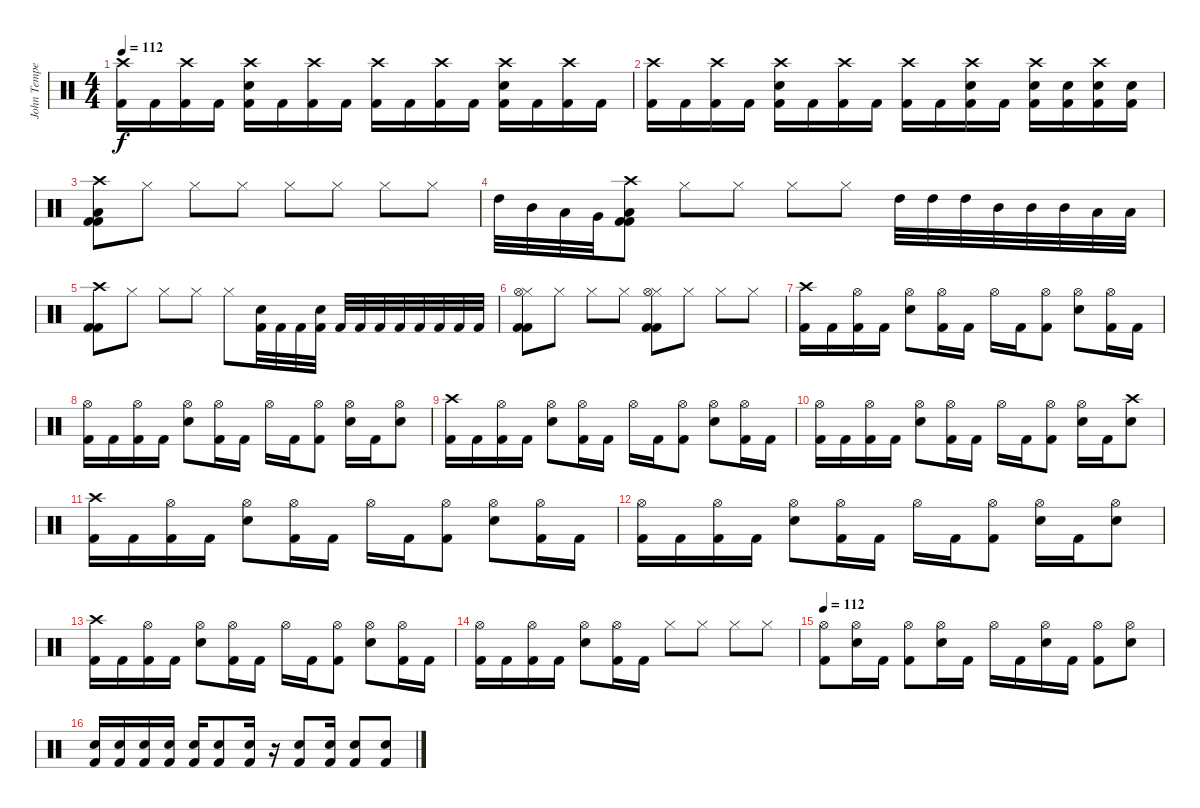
\track ("John Tempesta" "John Tempe") {instrument percussion}
\staff {score}
\articulation defaults
\ts (4 4)
\tempo 112
\clef neutral
\ks c
("Crash high (hit)" "Kick (hit) 2").16{dy f} "Kick (hit) 2".16 ("Crash high (hit)" "Kick (hit) 2").16 "Kick (hit) 2".16 ("Crash high (hit)" "Electric Snare (hit)" "Kick (hit) 2").16 "Kick (hit) 2".16 ("Crash high (hit)" "Kick (hit) 2").16 "Kick (hit) 2".16 ("Crash high (hit)" "Kick (hit) 2").16 "Kick (hit) 2".16 ("Crash high (hit)" "Kick (hit) 2").16 "Kick (hit) 2".16 ("Crash high (hit)" "Electric Snare (hit)" "Kick (hit) 2").16 "Kick (hit) 2".16 ("Crash high (hit)" "Kick (hit) 2").16 "Kick (hit) 2".16 |
("Crash high (hit)" "Kick (hit) 2").16 "Kick (hit) 2".16 ("Crash high (hit)" "Kick (hit) 2").16 "Kick (hit) 2".16 ("Crash high (hit)" "Electric Snare (hit)" "Kick (hit) 2").16 "Kick (hit) 2".16 ("Crash high (hit)" "Kick (hit) 2").16 "Kick (hit) 2".16 ("Crash high (hit)" "Kick (hit) 2").16 "Kick (hit) 2".16 ("Crash high (hit)" "Electric Snare (hit)" "Kick (hit) 2").16 "Kick (hit) 2".16 ("Crash high (hit)" "Electric Snare (hit)" "Kick (hit) 2").16 ("Electric Snare (hit)" "Kick (hit) 2").16 ("Crash high (hit)" "Electric Snare (hit)" "Kick (hit) 2").16 ("Electric Snare (hit)" "Kick (hit) 2").16 |
("Crash high (hit)" "Low Floor Tom (hit)" "Kick (hit) 2" "Kick (hit) 2").8 "Hi-Hat (closed)".8 "Hi-Hat (closed)".8 "Hi-Hat (closed)".8 "Hi-Hat (closed)".8 "Hi-Hat (closed)".8 "Hi-Hat (closed)".8 "Hi-Hat (closed)".8 |
"High Tom (hit)".32 "Mid Tom (hit)".32 "Low Tom (hit)".32 "Very Low Tom (hit)".32 ("Crash high (hit)" "Low Floor Tom (hit)" "Kick (hit) 2" "Kick (hit) 2").8 "Hi-Hat (closed)".8 "Hi-Hat (closed)".8 "Hi-Hat (closed)".8 "Hi-Hat (closed)".8 "High Tom (hit)".32 "High Tom (hit)".32 "High Tom (hit)".32 "Mid Tom (hit)".32 "Mid Tom (hit)".32 "Mid Tom (hit)".32 "Low Tom (hit)".32 "Low Tom (hit)".32 |
("Crash high (hit)" "Kick (hit) 2" "Kick (hit) 2").8 "Hi-Hat (closed)".8 "Hi-Hat (closed)".8 "Hi-Hat (closed)".8 "Hi-Hat (closed)".8 ("Electric Snare (hit)" "Kick (hit) 2").32 "Kick (hit) 2".32 "Kick (hit) 2".32 ("Electric Snare (hit)" "Kick (hit) 2").32 "Kick (hit) 2".32 "Kick (hit) 2".32 "Kick (hit) 2".32 "Kick (hit) 2".32 "Kick (hit) 2".32 "Kick (hit) 2".32 "Kick (hit) 2".32 "Kick (hit) 2".32 |
("Hi-Hat (closed)" "Hi-Hat (open)" "Kick (hit) 2" "Kick (hit) 2").8 "Hi-Hat (closed)".8 "Hi-Hat (closed)".8 "Hi-Hat (closed)".8 ("Hi-Hat (closed)" "Hi-Hat (open)" "Kick (hit) 2" "Kick (hit) 2").8 "Hi-Hat (closed)".8 "Hi-Hat (closed)".8 "Hi-Hat (closed)".8 |
("Crash high (hit)" "Kick (hit) 2").16 "Kick (hit) 2".16 ("Hi-Hat (open)" "Kick (hit) 2").16 "Kick (hit) 2".16 ("Hi-Hat (open)" "Electric Snare (hit)").8 ("Hi-Hat (open)" "Kick (hit) 2").16 "Kick (hit) 2".16 "Hi-Hat (open)".16 "Kick (hit) 2".16 ("Hi-Hat (open)" "Kick (hit) 2").8 ("Hi-Hat (open)" "Electric Snare (hit)").8 ("Hi-Hat (open)" "Kick (hit) 2").16 "Kick (hit) 2".16 |
("Hi-Hat (open)" "Kick (hit) 2").16 "Kick (hit) 2".16 ("Hi-Hat (open)" "Kick (hit) 2").16 "Kick (hit) 2".16 ("Hi-Hat (open)" "Electric Snare (hit)").8 ("Hi-Hat (open)" "Kick (hit) 2").16 "Kick (hit) 2".16 "Hi-Hat (open)".16 "Kick (hit) 2".16 ("Hi-Hat (open)" "Kick (hit) 2").8 ("Hi-Hat (open)" "Electric Snare (hit)").16 "Kick (hit) 2".16 ("Hi-Hat (open)" "Electric Snare (hit)").8 |
("Crash high (hit)" "Kick (hit) 2").16 "Kick (hit) 2".16 ("Hi-Hat (open)" "Kick (hit) 2").16 "Kick (hit) 2".16 ("Hi-Hat (open)" "Electric Snare (hit)").8 ("Hi-Hat (open)" "Kick (hit) 2").16 "Kick (hit) 2".16 "Hi-Hat (open)".16 "Kick (hit) 2".16 ("Hi-Hat (open)" "Kick (hit) 2").8 ("Hi-Hat (open)" "Electric Snare (hit)").8 ("Hi-Hat (open)" "Kick (hit) 2").16 "Kick (hit) 2".16 |
("Hi-Hat (open)" "Kick (hit) 2").16 "Kick (hit) 2".16 ("Hi-Hat (open)" "Kick (hit) 2").16 "Kick (hit) 2".16 ("Hi-Hat (open)" "Electric Snare (hit)").8 ("Hi-Hat (open)" "Kick (hit) 2").16 "Kick (hit) 2".16 "Hi-Hat (open)".16 "Kick (hit) 2".16 ("Hi-Hat (open)" "Kick (hit) 2").8 ("Hi-Hat (open)" "Electric Snare (hit)").16 "Kick (hit) 2".16 ("Crash high (hit)" "Electric Snare (hit)").8 |
("Crash high (hit)" "Kick (hit) 2").16 "Kick (hit) 2".16 ("Hi-Hat (open)" "Kick (hit) 2").16 "Kick (hit) 2".16 ("Hi-Hat (open)" "Electric Snare (hit)").8 ("Hi-Hat (open)" "Kick (hit) 2").16 "Kick (hit) 2".16 "Hi-Hat (open)".16 "Kick (hit) 2".16 ("Hi-Hat (open)" "Kick (hit) 2").8 ("Hi-Hat (open)" "Electric Snare (hit)").8 ("Hi-Hat (open)" "Kick (hit) 2").16 "Kick (hit) 2".16 |
("Hi-Hat (open)" "Kick (hit) 2").16 "Kick (hit) 2".16 ("Hi-Hat (open)" "Kick (hit) 2").16 "Kick (hit) 2".16 ("Hi-Hat (open)" "Electric Snare (hit)").8 ("Hi-Hat (open)" "Kick (hit) 2").16 "Kick (hit) 2".16 "Hi-Hat (open)".16 "Kick (hit) 2".16 ("Hi-Hat (open)" "Kick (hit) 2").8 ("Hi-Hat (open)" "Electric Snare (hit)").16 "Kick (hit) 2".16 ("Hi-Hat (open)" "Electric Snare (hit)").8 |
("Crash high (hit)" "Kick (hit) 2").16 "Kick (hit) 2".16 ("Hi-Hat (open)" "Kick (hit) 2").16 "Kick (hit) 2".16 ("Hi-Hat (open)" "Electric Snare (hit)").8 ("Hi-Hat (open)" "Kick (hit) 2").16 "Kick (hit) 2".16 "Hi-Hat (open)".16 "Kick (hit) 2".16 ("Hi-Hat (open)" "Kick (hit) 2").8 ("Hi-Hat (open)" "Electric Snare (hit)").8 ("Hi-Hat (open)" "Kick (hit) 2").16 "Kick (hit) 2".16 |
("Hi-Hat (open)" "Kick (hit) 2").16 "Kick (hit) 2".16 ("Hi-Hat (open)" "Kick (hit) 2").16 "Kick (hit) 2".16 ("Hi-Hat (open)" "Electric Snare (hit)").8 ("Hi-Hat (open)" "Kick (hit) 2").16 "Kick (hit) 2".16 "Hi-Hat (closed)".8 "Hi-Hat (closed)".8 "Hi-Hat (closed)".8 "Hi-Hat (closed)".8 |
\tempo 112
("Hi-Hat (open)" "Kick (hit) 2").8 ("Hi-Hat (open)" "Electric Snare (hit)").16 "Kick (hit) 2".16 ("Hi-Hat (open)" "Kick (hit) 2").8 ("Hi-Hat (open)" "Electric Snare (hit)").16 "Kick (hit) 2".16 "Hi-Hat (open)".16 "Kick (hit) 2".16 ("Hi-Hat (open)" "Electric Snare (hit)").16 "Kick (hit) 2".16 ("Hi-Hat (open)" "Kick (hit) 2").8 ("Hi-Hat (open)" "Electric Snare (hit)").8 |
("Electric Snare (hit)" "Kick (hit) 2").16 ("Electric Snare (hit)" "Kick (hit) 2").16 ("Electric Snare (hit)" "Kick (hit) 2").16 ("Electric Snare (hit)" "Kick (hit) 2").16 ("Electric Snare (hit)" "Kick (hit) 2").16 ("Electric Snare (hit)" "Kick (hit) 2").8 ("Electric Snare (hit)" "Kick (hit) 2").16 r.16 ("Electric Snare (hit)" "Kick (hit) 2").8 ("Electric Snare (hit)" "Kick (hit) 2").16 ("Electric Snare (hit)" "Kick (hit) 2").8 ("Electric Snare (hit)" "Kick (hit) 2").8
